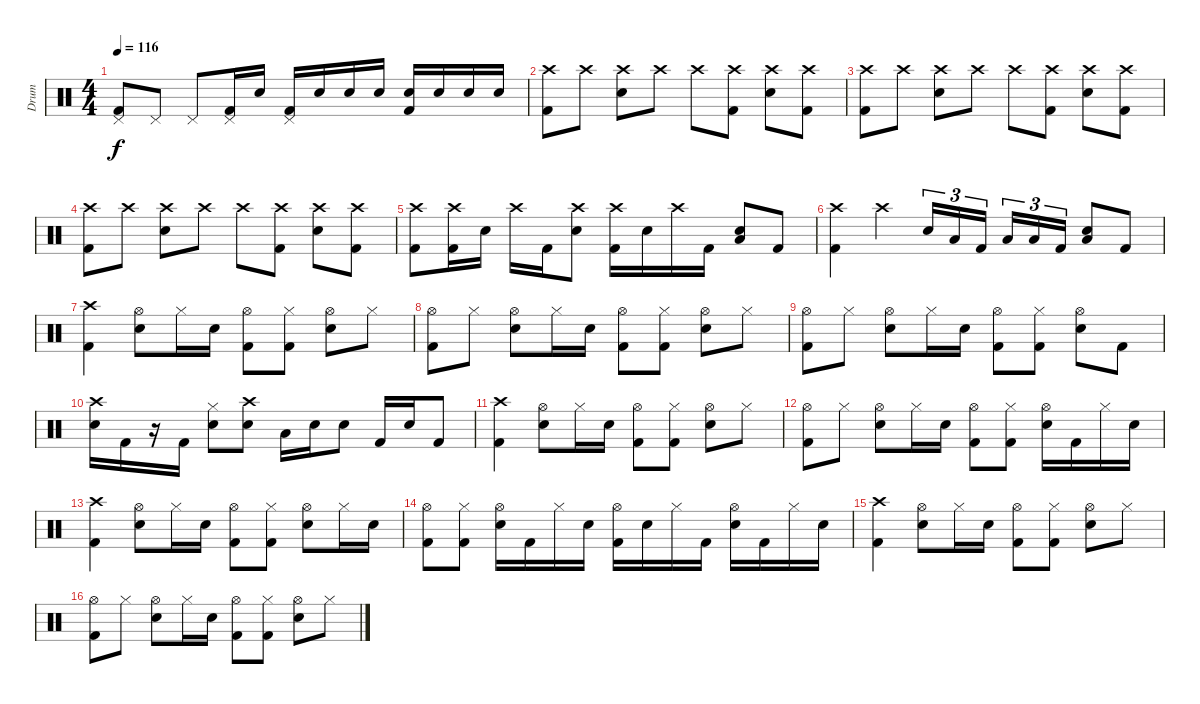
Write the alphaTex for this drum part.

\track ("Drum" "Drum") {instrument percussion}
\staff {score}
\articulation defaults
\ts (4 4)
\tempo 116
\clef neutral
\ks c
("Pedal Hi-Hat (hit)" "Kick (hit) 2").8{dy f} "Pedal Hi-Hat (hit)".8 "Pedal Hi-Hat (hit)".8 ("Pedal Hi-Hat (hit)" "Kick (hit) 2").16 "Electric Snare (hit)".16 ("Pedal Hi-Hat (hit)" "Kick (hit) 2").16 "Electric Snare (hit)".16 "Electric Snare (hit)".16 "Electric Snare (hit)".16 ("Electric Snare (hit)" "Kick (hit) 2").16 "Electric Snare (hit)".16 "Electric Snare (hit)".16 "Electric Snare (hit)".16 |
("Crash high (hit)" "Kick (hit) 2").8 "Crash high (hit)".8 ("Crash high (hit)" "Electric Snare (hit)").8 "Crash high (hit)".8 "Crash high (hit)".8 ("Crash high (hit)" "Kick (hit) 2").8 ("Crash high (hit)" "Electric Snare (hit)").8 ("Crash high (hit)" "Kick (hit) 2").8 |
("Crash high (hit)" "Kick (hit) 2").8 "Crash high (hit)".8 ("Crash high (hit)" "Electric Snare (hit)").8 "Crash high (hit)".8 "Crash high (hit)".8 ("Crash high (hit)" "Kick (hit) 2").8 ("Crash high (hit)" "Electric Snare (hit)").8 ("Crash high (hit)" "Kick (hit) 2").8 |
("Crash high (hit)" "Kick (hit) 2").8 "Crash high (hit)".8 ("Crash high (hit)" "Electric Snare (hit)").8 "Crash high (hit)".8 "Crash high (hit)".8 ("Crash high (hit)" "Kick (hit) 2").8 ("Crash high (hit)" "Electric Snare (hit)").8 ("Crash high (hit)" "Kick (hit) 2").8 |
("Crash high (hit)" "Kick (hit) 2").8 ("Crash high (hit)" "Kick (hit) 2").16 "Electric Snare (hit)".16 "Crash high (hit)".16 "Kick (hit) 2".16 ("Crash high (hit)" "Electric Snare (hit)").8 ("Crash high (hit)" "Kick (hit) 2").16 "Electric Snare (hit)".16 "Crash high (hit)".16 "Kick (hit) 2".16 ("Electric Snare (hit)" "Low Floor Tom (hit)").8 "Kick (hit) 2".8 |
("Crash high (hit)" "Kick (hit) 2").4 "Crash high (hit)".4 "Electric Snare (hit)".16{tu (3 2)} "Low Tom (hit)".16{tu (3 2)} "Kick (hit) 2".16{tu (3 2)} "Low Floor Tom (hit)".16{tu (3 2)} "Low Tom (hit)".16{tu (3 2)} "Kick (hit) 2".16{tu (3 2)} ("Electric Snare (hit)" "Low Floor Tom (hit)").8 "Kick (hit) 2".8 |
("Crash high (hit)" "Kick (hit) 2").4 ("Hi-Hat (open)" "Electric Snare (hit)").8 "Hi-Hat (closed)".16 "Electric Snare (hit)".16 ("Hi-Hat (open)" "Kick (hit) 2").8 ("Hi-Hat (closed)" "Kick (hit) 2").8 ("Hi-Hat (open)" "Electric Snare (hit)").8 "Hi-Hat (closed)".8 |
("Hi-Hat (open)" "Kick (hit) 2").8 "Hi-Hat (closed)".8 ("Hi-Hat (open)" "Electric Snare (hit)").8 "Hi-Hat (closed)".16 "Electric Snare (hit)".16 ("Hi-Hat (open)" "Kick (hit) 2").8 ("Hi-Hat (closed)" "Kick (hit) 2").8 ("Hi-Hat (open)" "Electric Snare (hit)").8 "Hi-Hat (closed)".8 |
("Hi-Hat (open)" "Kick (hit) 2").8 "Hi-Hat (closed)".8 ("Hi-Hat (open)" "Electric Snare (hit)").8 "Hi-Hat (closed)".16 "Electric Snare (hit)".16 ("Hi-Hat (open)" "Kick (hit) 2").8 ("Hi-Hat (closed)" "Kick (hit) 2").8 ("Hi-Hat (open)" "Electric Snare (hit)").8 "Kick (hit) 2".8 |
("Crash high (hit)" "Electric Snare (hit)").16 "Kick (hit) 2".16 r.16 "Kick (hit) 2".16 ("Hi-Hat (closed)" "Electric Snare (hit)").8 ("Crash high (hit)" "Electric Snare (hit)").8 "Low Tom (hit)".16 "Electric Snare (hit)".16 "Electric Snare (hit)".8 "Kick (hit) 2".16 "Electric Snare (hit)".16 "Kick (hit) 2".8 |
("Crash high (hit)" "Kick (hit) 2").4 ("Hi-Hat (open)" "Electric Snare (hit)").8 "Hi-Hat (closed)".16 "Electric Snare (hit)".16 ("Hi-Hat (open)" "Kick (hit) 2").8 ("Hi-Hat (closed)" "Kick (hit) 2").8 ("Hi-Hat (open)" "Electric Snare (hit)").8 "Hi-Hat (closed)".8 |
("Hi-Hat (open)" "Kick (hit) 2").8 "Hi-Hat (closed)".8 ("Hi-Hat (open)" "Electric Snare (hit)").8 "Hi-Hat (closed)".16 "Electric Snare (hit)".16 ("Hi-Hat (open)" "Kick (hit) 2").8 ("Hi-Hat (closed)" "Kick (hit) 2").8 ("Hi-Hat (open)" "Electric Snare (hit)").16 "Kick (hit) 2".16 "Hi-Hat (closed)".16 "Electric Snare (hit)".16 |
("Crash high (hit)" "Kick (hit) 2").4 ("Hi-Hat (open)" "Electric Snare (hit)").8 "Hi-Hat (closed)".16 "Electric Snare (hit)".16 ("Hi-Hat (open)" "Kick (hit) 2").8 ("Hi-Hat (closed)" "Kick (hit) 2").8 ("Hi-Hat (open)" "Electric Snare (hit)").8 "Hi-Hat (closed)".16 "Electric Snare (hit)".16 |
("Hi-Hat (open)" "Kick (hit) 2").8 ("Hi-Hat (closed)" "Kick (hit) 2").8 ("Hi-Hat (open)" "Electric Snare (hit)").16 "Kick (hit) 2".16 "Hi-Hat (closed)".16 "Electric Snare (hit)".16 ("Hi-Hat (open)" "Kick (hit) 2").16 "Electric Snare (hit)".16 "Hi-Hat (closed)".16 "Kick (hit) 2".16 ("Hi-Hat (open)" "Electric Snare (hit)").16 "Kick (hit) 2".16 "Hi-Hat (closed)".16 "Electric Snare (hit)".16 |
("Crash high (hit)" "Kick (hit) 2").4 ("Hi-Hat (open)" "Electric Snare (hit)").8 "Hi-Hat (closed)".16 "Electric Snare (hit)".16 ("Hi-Hat (open)" "Kick (hit) 2").8 ("Hi-Hat (closed)" "Kick (hit) 2").8 ("Hi-Hat (open)" "Electric Snare (hit)").8 "Hi-Hat (closed)".8 |
("Hi-Hat (open)" "Kick (hit) 2").8 "Hi-Hat (closed)".8 ("Hi-Hat (open)" "Electric Snare (hit)").8 "Hi-Hat (closed)".16 "Electric Snare (hit)".16 ("Hi-Hat (open)" "Kick (hit) 2").8 ("Hi-Hat (closed)" "Kick (hit) 2").8 ("Hi-Hat (open)" "Electric Snare (hit)").8 "Hi-Hat (closed)".8
